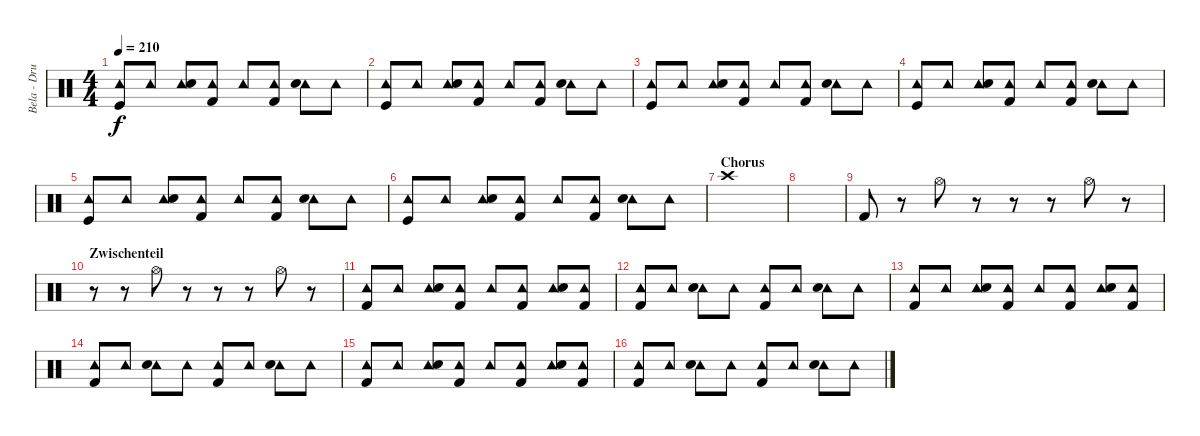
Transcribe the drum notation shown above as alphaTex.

\track ("Bela - Drums" "Bela - Dru") {instrument percussion}
\staff {score}
\articulation defaults
\ts (4 4)
\tempo 210
\clef neutral
\ks c
("Tambourine (hit)" "Kick (hit)").8{dy f} "Tambourine (hit)".8 ("Tambourine (hit)" "Electric Snare (hit)").8 ("Tambourine (hit)" "Kick (hit) 2").8 "Tambourine (hit)".8 ("Tambourine (hit)" "Kick (hit) 2").8 ("Tambourine (hit)" "Electric Snare (hit)").8 "Tambourine (hit)".8 |
("Tambourine (hit)" "Kick (hit)").8 "Tambourine (hit)".8 ("Tambourine (hit)" "Electric Snare (hit)").8 ("Tambourine (hit)" "Kick (hit) 2").8 "Tambourine (hit)".8 ("Tambourine (hit)" "Kick (hit) 2").8 ("Tambourine (hit)" "Electric Snare (hit)").8 "Tambourine (hit)".8 |
("Tambourine (hit)" "Kick (hit)").8 "Tambourine (hit)".8 ("Tambourine (hit)" "Electric Snare (hit)").8 ("Tambourine (hit)" "Kick (hit) 2").8 "Tambourine (hit)".8 ("Tambourine (hit)" "Kick (hit) 2").8 ("Tambourine (hit)" "Electric Snare (hit)").8 "Tambourine (hit)".8 |
("Tambourine (hit)" "Kick (hit)").8 "Tambourine (hit)".8 ("Tambourine (hit)" "Electric Snare (hit)").8 ("Tambourine (hit)" "Kick (hit) 2").8 "Tambourine (hit)".8 ("Tambourine (hit)" "Kick (hit) 2").8 ("Tambourine (hit)" "Electric Snare (hit)").8 "Tambourine (hit)".8 |
("Tambourine (hit)" "Kick (hit)").8 "Tambourine (hit)".8 ("Tambourine (hit)" "Electric Snare (hit)").8 ("Tambourine (hit)" "Kick (hit) 2").8 "Tambourine (hit)".8 ("Tambourine (hit)" "Kick (hit) 2").8 ("Tambourine (hit)" "Electric Snare (hit)").8 "Tambourine (hit)".8 |
("Tambourine (hit)" "Kick (hit)").8 "Tambourine (hit)".8 ("Tambourine (hit)" "Electric Snare (hit)").8 ("Tambourine (hit)" "Kick (hit) 2").8 "Tambourine (hit)".8 ("Tambourine (hit)" "Kick (hit) 2").8 ("Tambourine (hit)" "Electric Snare (hit)").8 "Tambourine (hit)".8 |
\section ("" "Chorus")
"Crash high (hit)".1 |
|
"Kick (hit) 2".8 r.8 "Hi-Hat (open)".8 r.8 r.8 r.8 "Hi-Hat (open)".8 r.8 |
\section ("" "Zwischenteil")
r.8 r.8 "Hi-Hat (open)".8 r.8 r.8 r.8 "Hi-Hat (open)".8 r.8 |
("Tambourine (hit)" "Kick (hit) 2").8 "Tambourine (hit)".8 ("Tambourine (hit)" "Electric Snare (hit)").8 ("Tambourine (hit)" "Kick (hit) 2").8 "Tambourine (hit)".8 ("Tambourine (hit)" "Kick (hit) 2").8 ("Tambourine (hit)" "Electric Snare (hit)").8 ("Tambourine (hit)" "Kick (hit) 2").8 |
("Tambourine (hit)" "Kick (hit) 2").8 "Tambourine (hit)".8 ("Tambourine (hit)" "Electric Snare (hit)").8 "Tambourine (hit)".8 ("Tambourine (hit)" "Kick (hit) 2").8 "Tambourine (hit)".8 ("Tambourine (hit)" "Electric Snare (hit)").8 "Tambourine (hit)".8 |
("Tambourine (hit)" "Kick (hit) 2").8 "Tambourine (hit)".8 ("Tambourine (hit)" "Electric Snare (hit)").8 ("Tambourine (hit)" "Kick (hit) 2").8 "Tambourine (hit)".8 ("Tambourine (hit)" "Kick (hit) 2").8 ("Tambourine (hit)" "Electric Snare (hit)").8 ("Tambourine (hit)" "Kick (hit) 2").8 |
("Tambourine (hit)" "Kick (hit) 2").8 "Tambourine (hit)".8 ("Tambourine (hit)" "Electric Snare (hit)").8 "Tambourine (hit)".8 ("Tambourine (hit)" "Kick (hit) 2").8 "Tambourine (hit)".8 ("Tambourine (hit)" "Electric Snare (hit)").8 "Tambourine (hit)".8 |
("Tambourine (hit)" "Kick (hit) 2").8 "Tambourine (hit)".8 ("Tambourine (hit)" "Electric Snare (hit)").8 ("Tambourine (hit)" "Kick (hit) 2").8 "Tambourine (hit)".8 ("Tambourine (hit)" "Kick (hit) 2").8 ("Tambourine (hit)" "Electric Snare (hit)").8 ("Tambourine (hit)" "Kick (hit) 2").8 |
("Tambourine (hit)" "Kick (hit) 2").8 "Tambourine (hit)".8 ("Tambourine (hit)" "Electric Snare (hit)").8 "Tambourine (hit)".8 ("Tambourine (hit)" "Kick (hit) 2").8 "Tambourine (hit)".8 ("Tambourine (hit)" "Electric Snare (hit)").8 "Tambourine (hit)".8
